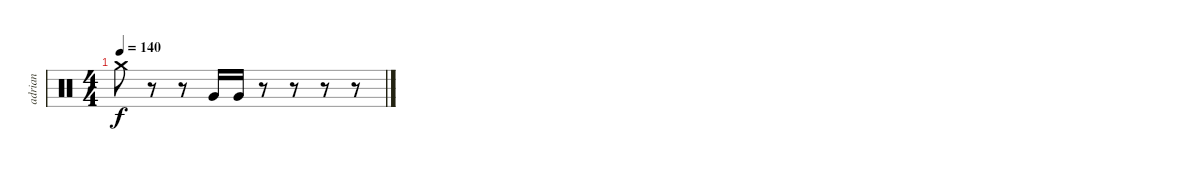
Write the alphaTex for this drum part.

\track ("adrian" "adrian") {instrument percussion}
\staff {score}
\articulation defaults
\ts (4 4)
\tempo 140
\clef neutral
\ks c "Crash medium (hit)".8{dy f}
r.8 r.8 "Very Low Tom (hit)".16 "Very Low Tom (hit)".16 r.8 r.8 r.8 r.8
